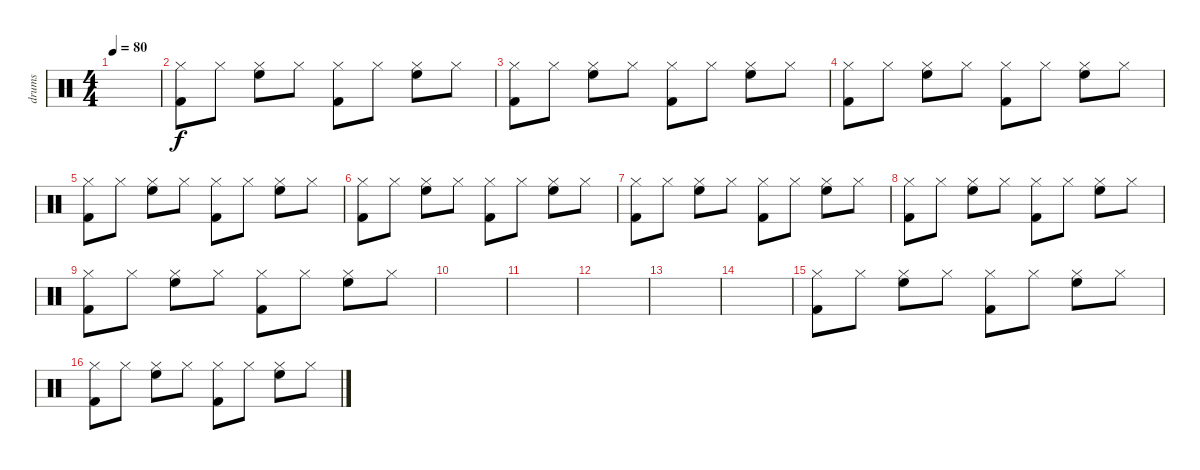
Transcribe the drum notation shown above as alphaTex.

\track ("drums" "drums") {instrument percussion}
\staff {score}
\articulation defaults
\ts (4 4)
\tempo 80
\clef neutral
\ks c
|
("Hi-Hat (closed)" "Kick (hit) 2").8 "Hi-Hat (closed)".8 ("Hi-Hat (closed)" "High Floor Tom (hit)").8 "Hi-Hat (closed)".8 ("Hi-Hat (closed)" "Kick (hit) 2").8 "Hi-Hat (closed)".8 ("Hi-Hat (closed)" "High Floor Tom (hit)").8 "Hi-Hat (closed)".8 |
("Hi-Hat (closed)" "Kick (hit) 2").8 "Hi-Hat (closed)".8 ("Hi-Hat (closed)" "High Floor Tom (hit)").8 "Hi-Hat (closed)".8 ("Hi-Hat (closed)" "Kick (hit) 2").8 "Hi-Hat (closed)".8 ("Hi-Hat (closed)" "High Floor Tom (hit)").8 "Hi-Hat (closed)".8 |
("Hi-Hat (closed)" "Kick (hit) 2").8 "Hi-Hat (closed)".8 ("Hi-Hat (closed)" "High Floor Tom (hit)").8 "Hi-Hat (closed)".8 ("Hi-Hat (closed)" "Kick (hit) 2").8 "Hi-Hat (closed)".8 ("Hi-Hat (closed)" "High Floor Tom (hit)").8 "Hi-Hat (closed)".8 |
("Hi-Hat (closed)" "Kick (hit) 2").8 "Hi-Hat (closed)".8 ("Hi-Hat (closed)" "High Floor Tom (hit)").8 "Hi-Hat (closed)".8 ("Hi-Hat (closed)" "Kick (hit) 2").8 "Hi-Hat (closed)".8 ("Hi-Hat (closed)" "High Floor Tom (hit)").8 "Hi-Hat (closed)".8 |
("Hi-Hat (closed)" "Kick (hit) 2").8 "Hi-Hat (closed)".8 ("Hi-Hat (closed)" "High Floor Tom (hit)").8 "Hi-Hat (closed)".8 ("Hi-Hat (closed)" "Kick (hit) 2").8 "Hi-Hat (closed)".8 ("Hi-Hat (closed)" "High Floor Tom (hit)").8 "Hi-Hat (closed)".8 |
("Hi-Hat (closed)" "Kick (hit) 2").8 "Hi-Hat (closed)".8 ("Hi-Hat (closed)" "High Floor Tom (hit)").8 "Hi-Hat (closed)".8 ("Hi-Hat (closed)" "Kick (hit) 2").8 "Hi-Hat (closed)".8 ("Hi-Hat (closed)" "High Floor Tom (hit)").8 "Hi-Hat (closed)".8 |
("Hi-Hat (closed)" "Kick (hit) 2").8 "Hi-Hat (closed)".8 ("Hi-Hat (closed)" "High Floor Tom (hit)").8 "Hi-Hat (closed)".8 ("Hi-Hat (closed)" "Kick (hit) 2").8 "Hi-Hat (closed)".8 ("Hi-Hat (closed)" "High Floor Tom (hit)").8 "Hi-Hat (closed)".8 |
("Hi-Hat (closed)" "Kick (hit) 2").8 "Hi-Hat (closed)".8 ("Hi-Hat (closed)" "High Floor Tom (hit)").8 "Hi-Hat (closed)".8 ("Hi-Hat (closed)" "Kick (hit) 2").8 "Hi-Hat (closed)".8 ("Hi-Hat (closed)" "High Floor Tom (hit)").8 "Hi-Hat (closed)".8 |
|
|
|
|
|
("Hi-Hat (closed)" "Kick (hit) 2").8 "Hi-Hat (closed)".8 ("Hi-Hat (closed)" "High Floor Tom (hit)").8 "Hi-Hat (closed)".8 ("Hi-Hat (closed)" "Kick (hit) 2").8 "Hi-Hat (closed)".8 ("Hi-Hat (closed)" "High Floor Tom (hit)").8 "Hi-Hat (closed)".8 |
("Hi-Hat (closed)" "Kick (hit) 2").8 "Hi-Hat (closed)".8 ("Hi-Hat (closed)" "High Floor Tom (hit)").8 "Hi-Hat (closed)".8 ("Hi-Hat (closed)" "Kick (hit) 2").8 "Hi-Hat (closed)".8 ("Hi-Hat (closed)" "High Floor Tom (hit)").8 "Hi-Hat (closed)".8
